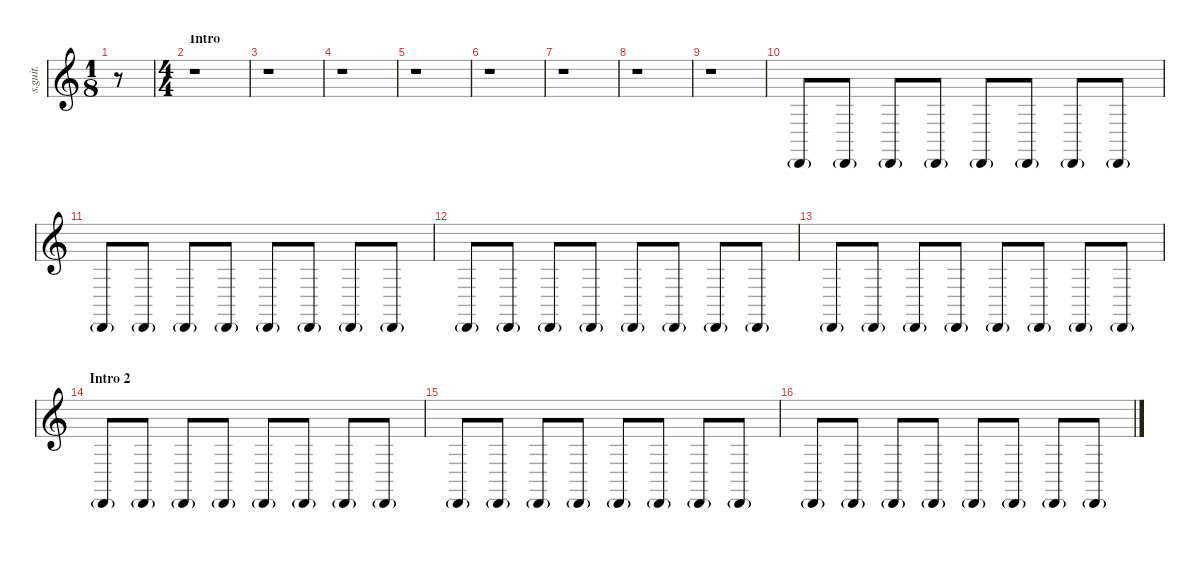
\defaultSystemsLayout 4
\hideDynamics
\bracketExtendMode nobrackets
\track ("Shaker" "s.guit.") {instrument percussion}
\staff {score}
\articulation defaults
\ts (1 8)
\beaming (8 2 2 2 2)
\tempo (124 hide)
\clef g2
\ks c
r.8{dy p} |
\ts (4 4)
\beaming (8 2 2 2 2)
\section ("" "Intro")
r.1 |
r.1 |
r.1 |
r.1 |
r.1 |
r.1 |
r.1 |
r.1 |
"Cabasa (hit)"{g}.8{lyrics (0 "") lyrics (1 "") lyrics (2 "") lyrics (3 "") lyrics (4 "")} "Cabasa (hit)"{g}.8{lyrics (0 "") lyrics (1 "") lyrics (2 "") lyrics (3 "") lyrics (4 "") dy pp} "Cabasa (hit)"{g}.8{lyrics (0 "") lyrics (1 "") lyrics (2 "") lyrics (3 "") lyrics (4 "") dy p} "Cabasa (hit)"{g}.8{lyrics (0 "") lyrics (1 "") lyrics (2 "") lyrics (3 "") lyrics (4 "") dy pp} "Cabasa (hit)"{g}.8{lyrics (0 "") lyrics (1 "") lyrics (2 "") lyrics (3 "") lyrics (4 "") dy p} "Cabasa (hit)"{g}.8{lyrics (0 "") lyrics (1 "") lyrics (2 "") lyrics (3 "") lyrics (4 "") dy pp} "Cabasa (hit)"{g}.8{lyrics (0 "") lyrics (1 "") lyrics (2 "") lyrics (3 "") lyrics (4 "") dy p} "Cabasa (hit)"{g}.8{lyrics (0 "") lyrics (1 "") lyrics (2 "") lyrics (3 "") lyrics (4 "") dy pp} |
"Cabasa (hit)"{g}.8{lyrics (0 "") lyrics (1 "") lyrics (2 "") lyrics (3 "") lyrics (4 "") dy p} "Cabasa (hit)"{g}.8{lyrics (0 "") lyrics (1 "") lyrics (2 "") lyrics (3 "") lyrics (4 "") dy pp} "Cabasa (hit)"{g}.8{lyrics (0 "") lyrics (1 "") lyrics (2 "") lyrics (3 "") lyrics (4 "") dy p} "Cabasa (hit)"{g}.8{lyrics (0 "") lyrics (1 "") lyrics (2 "") lyrics (3 "") lyrics (4 "") dy pp} "Cabasa (hit)"{g}.8{lyrics (0 "") lyrics (1 "") lyrics (2 "") lyrics (3 "") lyrics (4 "") dy p} "Cabasa (hit)"{g}.8{lyrics (0 "") lyrics (1 "") lyrics (2 "") lyrics (3 "") lyrics (4 "") dy pp} "Cabasa (hit)"{g}.8{lyrics (0 "") lyrics (1 "") lyrics (2 "") lyrics (3 "") lyrics (4 "") dy p} "Cabasa (hit)"{g}.8{lyrics (0 "") lyrics (1 "") lyrics (2 "") lyrics (3 "") lyrics (4 "") dy pp} |
"Cabasa (hit)"{g}.8{lyrics (0 "") lyrics (1 "") lyrics (2 "") lyrics (3 "") lyrics (4 "") dy p} "Cabasa (hit)"{g}.8{lyrics (0 "") lyrics (1 "") lyrics (2 "") lyrics (3 "") lyrics (4 "") dy pp} "Cabasa (hit)"{g}.8{lyrics (0 "") lyrics (1 "") lyrics (2 "") lyrics (3 "") lyrics (4 "") dy p} "Cabasa (hit)"{g}.8{lyrics (0 "") lyrics (1 "") lyrics (2 "") lyrics (3 "") lyrics (4 "") dy pp} "Cabasa (hit)"{g}.8{lyrics (0 "") lyrics (1 "") lyrics (2 "") lyrics (3 "") lyrics (4 "") dy p} "Cabasa (hit)"{g}.8{lyrics (0 "") lyrics (1 "") lyrics (2 "") lyrics (3 "") lyrics (4 "") dy pp} "Cabasa (hit)"{g}.8{lyrics (0 "") lyrics (1 "") lyrics (2 "") lyrics (3 "") lyrics (4 "") dy p} "Cabasa (hit)"{g}.8{lyrics (0 "") lyrics (1 "") lyrics (2 "") lyrics (3 "") lyrics (4 "") dy pp} |
"Cabasa (hit)"{g}.8{lyrics (0 "") lyrics (1 "") lyrics (2 "") lyrics (3 "") lyrics (4 "") dy p} "Cabasa (hit)"{g}.8{lyrics (0 "") lyrics (1 "") lyrics (2 "") lyrics (3 "") lyrics (4 "") dy pp} "Cabasa (hit)"{g}.8{lyrics (0 "") lyrics (1 "") lyrics (2 "") lyrics (3 "") lyrics (4 "") dy p} "Cabasa (hit)"{g}.8{lyrics (0 "") lyrics (1 "") lyrics (2 "") lyrics (3 "") lyrics (4 "") dy pp} "Cabasa (hit)"{g}.8{lyrics (0 "") lyrics (1 "") lyrics (2 "") lyrics (3 "") lyrics (4 "") dy p} "Cabasa (hit)"{g}.8{lyrics (0 "") lyrics (1 "") lyrics (2 "") lyrics (3 "") lyrics (4 "") dy pp} "Cabasa (hit)"{g}.8{lyrics (0 "") lyrics (1 "") lyrics (2 "") lyrics (3 "") lyrics (4 "") dy p} "Cabasa (hit)"{g}.8{lyrics (0 "") lyrics (1 "") lyrics (2 "") lyrics (3 "") lyrics (4 "") dy pp} |
\section ("" "Intro 2")
"Cabasa (hit)"{g}.8{lyrics (0 "") lyrics (1 "") lyrics (2 "") lyrics (3 "") lyrics (4 "") dy p} "Cabasa (hit)"{g}.8{lyrics (0 "") lyrics (1 "") lyrics (2 "") lyrics (3 "") lyrics (4 "") dy pp} "Cabasa (hit)"{g}.8{lyrics (0 "") lyrics (1 "") lyrics (2 "") lyrics (3 "") lyrics (4 "") dy p} "Cabasa (hit)"{g}.8{lyrics (0 "") lyrics (1 "") lyrics (2 "") lyrics (3 "") lyrics (4 "") dy pp} "Cabasa (hit)"{g}.8{lyrics (0 "") lyrics (1 "") lyrics (2 "") lyrics (3 "") lyrics (4 "") dy p} "Cabasa (hit)"{g}.8{lyrics (0 "") lyrics (1 "") lyrics (2 "") lyrics (3 "") lyrics (4 "") dy pp} "Cabasa (hit)"{g}.8{lyrics (0 "") lyrics (1 "") lyrics (2 "") lyrics (3 "") lyrics (4 "") dy p} "Cabasa (hit)"{g}.8{lyrics (0 "") lyrics (1 "") lyrics (2 "") lyrics (3 "") lyrics (4 "") dy pp} |
"Cabasa (hit)"{g}.8{lyrics (0 "") lyrics (1 "") lyrics (2 "") lyrics (3 "") lyrics (4 "") dy p} "Cabasa (hit)"{g}.8{lyrics (0 "") lyrics (1 "") lyrics (2 "") lyrics (3 "") lyrics (4 "") dy pp} "Cabasa (hit)"{g}.8{lyrics (0 "") lyrics (1 "") lyrics (2 "") lyrics (3 "") lyrics (4 "") dy p} "Cabasa (hit)"{g}.8{lyrics (0 "") lyrics (1 "") lyrics (2 "") lyrics (3 "") lyrics (4 "") dy pp} "Cabasa (hit)"{g}.8{lyrics (0 "") lyrics (1 "") lyrics (2 "") lyrics (3 "") lyrics (4 "") dy p} "Cabasa (hit)"{g}.8{lyrics (0 "") lyrics (1 "") lyrics (2 "") lyrics (3 "") lyrics (4 "") dy pp} "Cabasa (hit)"{g}.8{lyrics (0 "") lyrics (1 "") lyrics (2 "") lyrics (3 "") lyrics (4 "") dy p} "Cabasa (hit)"{g}.8{lyrics (0 "") lyrics (1 "") lyrics (2 "") lyrics (3 "") lyrics (4 "") dy pp} |
"Cabasa (hit)"{g}.8{lyrics (0 "") lyrics (1 "") lyrics (2 "") lyrics (3 "") lyrics (4 "") dy p} "Cabasa (hit)"{g}.8{lyrics (0 "") lyrics (1 "") lyrics (2 "") lyrics (3 "") lyrics (4 "") dy pp} "Cabasa (hit)"{g}.8{lyrics (0 "") lyrics (1 "") lyrics (2 "") lyrics (3 "") lyrics (4 "") dy p} "Cabasa (hit)"{g}.8{lyrics (0 "") lyrics (1 "") lyrics (2 "") lyrics (3 "") lyrics (4 "") dy pp} "Cabasa (hit)"{g}.8{lyrics (0 "") lyrics (1 "") lyrics (2 "") lyrics (3 "") lyrics (4 "") dy p} "Cabasa (hit)"{g}.8{lyrics (0 "") lyrics (1 "") lyrics (2 "") lyrics (3 "") lyrics (4 "") dy pp} "Cabasa (hit)"{g}.8{lyrics (0 "") lyrics (1 "") lyrics (2 "") lyrics (3 "") lyrics (4 "") dy p} "Cabasa (hit)"{g}.8{lyrics (0 "") lyrics (1 "") lyrics (2 "") lyrics (3 "") lyrics (4 "") dy pp}
